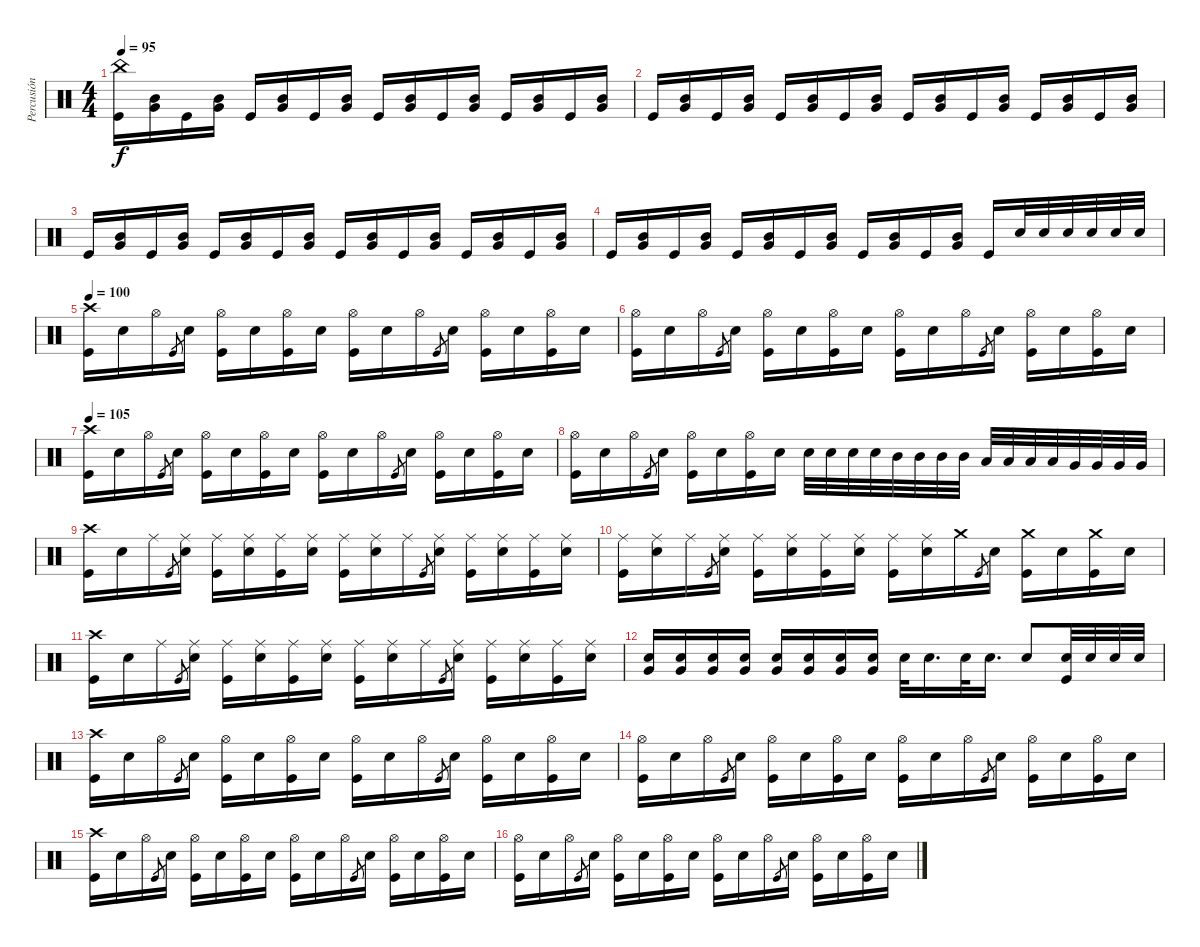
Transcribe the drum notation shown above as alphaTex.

\track ("Percusión" "Percusión") {instrument percussion}
\staff {score}
\articulation defaults
\ts (4 4)
\tempo 95
\clef neutral
\ks c
("Kick (hit)" "China (hit)").16{dy f} ("Mid Tom (hit)" "Very Low Tom (hit)").16 "Kick (hit)".16 ("Mid Tom (hit)" "Very Low Tom (hit)").16 "Kick (hit)".16 ("Mid Tom (hit)" "Very Low Tom (hit)").16 "Kick (hit)".16 ("Mid Tom (hit)" "Very Low Tom (hit)").16 "Kick (hit)".16 ("Mid Tom (hit)" "Very Low Tom (hit)").16 "Kick (hit)".16 ("Mid Tom (hit)" "Very Low Tom (hit)").16 "Kick (hit)".16 ("Mid Tom (hit)" "Very Low Tom (hit)").16 "Kick (hit)".16 ("Mid Tom (hit)" "Very Low Tom (hit)").16 |
"Kick (hit)".16 ("Mid Tom (hit)" "Very Low Tom (hit)").16 "Kick (hit)".16 ("Mid Tom (hit)" "Very Low Tom (hit)").16 "Kick (hit)".16 ("Mid Tom (hit)" "Very Low Tom (hit)").16 "Kick (hit)".16 ("Mid Tom (hit)" "Very Low Tom (hit)").16 "Kick (hit)".16 ("Mid Tom (hit)" "Very Low Tom (hit)").16 "Kick (hit)".16 ("Mid Tom (hit)" "Very Low Tom (hit)").16 "Kick (hit)".16 ("Mid Tom (hit)" "Very Low Tom (hit)").16 "Kick (hit)".16 ("Mid Tom (hit)" "Very Low Tom (hit)").16 |
"Kick (hit)".16 ("Mid Tom (hit)" "Very Low Tom (hit)").16 "Kick (hit)".16 ("Mid Tom (hit)" "Very Low Tom (hit)").16 "Kick (hit)".16 ("Mid Tom (hit)" "Very Low Tom (hit)").16 "Kick (hit)".16 ("Mid Tom (hit)" "Very Low Tom (hit)").16 "Kick (hit)".16 ("Mid Tom (hit)" "Very Low Tom (hit)").16 "Kick (hit)".16 ("Mid Tom (hit)" "Very Low Tom (hit)").16 "Kick (hit)".16 ("Mid Tom (hit)" "Very Low Tom (hit)").16 "Kick (hit)".16 ("Mid Tom (hit)" "Very Low Tom (hit)").16 |
"Kick (hit)".16 ("Mid Tom (hit)" "Very Low Tom (hit)").16 "Kick (hit)".16 ("Mid Tom (hit)" "Very Low Tom (hit)").16 "Kick (hit)".16 ("Mid Tom (hit)" "Very Low Tom (hit)").16 "Kick (hit)".16 ("Mid Tom (hit)" "Very Low Tom (hit)").16 "Kick (hit)".16 ("Mid Tom (hit)" "Very Low Tom (hit)").16 "Kick (hit)".16 ("Mid Tom (hit)" "Very Low Tom (hit)").16 "Kick (hit)".16 "Snare (hit) 2".32 "Snare (hit) 2".32 "Snare (hit) 2".32 "Snare (hit) 2".32 "Snare (hit) 2".32 "Snare (hit) 2".32 |
\tempo 100
("Kick (hit)" "Crash high (hit)").16 "Snare (hit) 2".16 "Hi-Hat (open)".16 "Kick (hit)".8{gr} "Snare (hit) 2".16 ("Kick (hit)" "Hi-Hat (open)").16 "Snare (hit) 2".16 ("Kick (hit)" "Hi-Hat (open)").16 "Snare (hit) 2".16 ("Kick (hit)" "Hi-Hat (open)").16 "Snare (hit) 2".16 "Hi-Hat (open)".16 "Kick (hit)".8{gr} "Snare (hit) 2".16 ("Kick (hit)" "Hi-Hat (open)").16 "Snare (hit) 2".16 ("Kick (hit)" "Hi-Hat (open)").16 "Snare (hit) 2".16 |
("Kick (hit)" "Hi-Hat (open)").16 "Snare (hit) 2".16 "Hi-Hat (open)".16 "Kick (hit)".8{gr} "Snare (hit) 2".16 ("Kick (hit)" "Hi-Hat (open)").16 "Snare (hit) 2".16 ("Kick (hit)" "Hi-Hat (open)").16 "Snare (hit) 2".16 ("Kick (hit)" "Hi-Hat (open)").16 "Snare (hit) 2".16 "Hi-Hat (open)".16 "Kick (hit)".8{gr} "Snare (hit) 2".16 ("Kick (hit)" "Hi-Hat (open)").16 "Snare (hit) 2".16 ("Kick (hit)" "Hi-Hat (open)").16 "Snare (hit) 2".16 |
\tempo 105
("Kick (hit)" "Crash high (hit)").16 "Snare (hit) 2".16 "Hi-Hat (open)".16 "Kick (hit)".8{gr} "Snare (hit) 2".16 ("Kick (hit)" "Hi-Hat (open)").16 "Snare (hit) 2".16 ("Kick (hit)" "Hi-Hat (open)").16 "Snare (hit) 2".16 ("Kick (hit)" "Hi-Hat (open)").16 "Snare (hit) 2".16 "Hi-Hat (open)".16 "Kick (hit)".8{gr} "Snare (hit) 2".16 ("Kick (hit)" "Hi-Hat (open)").16 "Snare (hit) 2".16 ("Kick (hit)" "Hi-Hat (open)").16 "Snare (hit) 2".16 |
("Kick (hit)" "Hi-Hat (open)").16 "Snare (hit) 2".16 "Hi-Hat (open)".16 "Kick (hit)".8{gr} "Snare (hit) 2".16 ("Kick (hit)" "Hi-Hat (open)").16 "Snare (hit) 2".16 ("Kick (hit)" "Hi-Hat (open)").16 "Snare (hit) 2".16 "Snare (hit) 2".32 "Snare (hit) 2".32 "Snare (hit) 2".32 "Snare (hit) 2".32 "Mid Tom (hit)".32 "Mid Tom (hit)".32 "Mid Tom (hit)".32 "Mid Tom (hit)".32 "Low Tom (hit)".32 "Low Tom (hit)".32 "Low Tom (hit)".32 "Low Tom (hit)".32 "Very Low Tom (hit)".32 "Very Low Tom (hit)".32 "Very Low Tom (hit)".32 "Very Low Tom (hit)".32 |
("Kick (hit)" "Crash high (hit)").16 "Snare (hit) 2".16 "Ride (middle)".16 "Kick (hit)".8{gr} ("Snare (hit) 2" "Ride (middle)").16 ("Kick (hit)" "Ride (middle)").16 ("Snare (hit) 2" "Ride (middle)").16 ("Kick (hit)" "Ride (middle)").16 ("Snare (hit) 2" "Ride (middle)").16 ("Kick (hit)" "Ride (middle)").16 ("Snare (hit) 2" "Ride (middle)").16 "Ride (middle)".16 "Kick (hit)".8{gr} ("Snare (hit) 2" "Ride (middle)").16 ("Kick (hit)" "Ride (middle)").16 ("Snare (hit) 2" "Ride (middle)").16 ("Kick (hit)" "Ride (middle)").16 ("Snare (hit) 2" "Ride (middle)").16 |
("Kick (hit)" "Ride (middle)").16 ("Snare (hit) 2" "Ride (middle)").16 "Ride (middle)".16 "Kick (hit)".8{gr} ("Snare (hit) 2" "Ride (middle)").16 ("Kick (hit)" "Ride (middle)").16 ("Snare (hit) 2" "Ride (middle)").16 ("Kick (hit)" "Ride (middle)").16 ("Snare (hit) 2" "Ride (middle)").16 ("Kick (hit)" "Ride (middle)").16 ("Snare (hit) 2" "Ride (middle)").16 "Crash medium (hit)".16 "Kick (hit)".8{gr} "Snare (hit) 2".16 ("Kick (hit)" "Crash medium (hit)").16 "Snare (hit) 2".16 ("Kick (hit)" "Crash medium (hit)").16 "Snare (hit) 2".16 |
("Kick (hit)" "Crash high (hit)").16 "Snare (hit) 2".16 "Ride (middle)".16 "Kick (hit)".8{gr} ("Snare (hit) 2" "Ride (middle)").16 ("Kick (hit)" "Ride (middle)").16 ("Snare (hit) 2" "Ride (middle)").16 ("Kick (hit)" "Ride (middle)").16 ("Snare (hit) 2" "Ride (middle)").16 ("Kick (hit)" "Ride (middle)").16 ("Snare (hit) 2" "Ride (middle)").16 "Ride (middle)".16 "Kick (hit)".8{gr} ("Snare (hit) 2" "Ride (middle)").16 ("Kick (hit)" "Ride (middle)").16 ("Snare (hit) 2" "Ride (middle)").16 ("Kick (hit)" "Ride (middle)").16 ("Snare (hit) 2" "Ride (middle)").16 |
("Snare (hit) 2" "Very Low Tom (hit)").16 ("Snare (hit) 2" "Very Low Tom (hit)").16 ("Snare (hit) 2" "Very Low Tom (hit)").16 ("Snare (hit) 2" "Very Low Tom (hit)").16 ("Snare (hit) 2" "Very Low Tom (hit)").16 ("Snare (hit) 2" "Very Low Tom (hit)").16 ("Snare (hit) 2" "Very Low Tom (hit)").16 ("Snare (hit) 2" "Very Low Tom (hit)").16 "Snare (hit) 2".32 "Snare (hit) 2".16{d} "Snare (hit) 2".32 "Snare (hit) 2".16{d} "Snare (hit) 2".8 ("Snare (hit) 2" "Kick (hit)").32 "Snare (hit) 2".32 "Snare (hit) 2".32 "Snare (hit) 2".32 |
("Kick (hit)" "Crash high (hit)").16 "Snare (hit) 2".16 "Hi-Hat (open)".16 "Kick (hit)".8{gr} "Snare (hit) 2".16 ("Kick (hit)" "Hi-Hat (open)").16 "Snare (hit) 2".16 ("Kick (hit)" "Hi-Hat (open)").16 "Snare (hit) 2".16 ("Kick (hit)" "Hi-Hat (open)").16 "Snare (hit) 2".16 "Hi-Hat (open)".16 "Kick (hit)".8{gr} "Snare (hit) 2".16 ("Kick (hit)" "Hi-Hat (open)").16 "Snare (hit) 2".16 ("Kick (hit)" "Hi-Hat (open)").16 "Snare (hit) 2".16 |
("Kick (hit)" "Hi-Hat (open)").16 "Snare (hit) 2".16 "Hi-Hat (open)".16 "Kick (hit)".8{gr} "Snare (hit) 2".16 ("Kick (hit)" "Hi-Hat (open)").16 "Snare (hit) 2".16 ("Kick (hit)" "Hi-Hat (open)").16 "Snare (hit) 2".16 ("Kick (hit)" "Hi-Hat (open)").16 "Snare (hit) 2".16 "Hi-Hat (open)".16 "Kick (hit)".8{gr} "Snare (hit) 2".16 ("Kick (hit)" "Hi-Hat (open)").16 "Snare (hit) 2".16 ("Kick (hit)" "Hi-Hat (open)").16 "Snare (hit) 2".16 |
("Kick (hit)" "Crash high (hit)").16 "Snare (hit) 2".16 "Hi-Hat (open)".16 "Kick (hit)".8{gr} "Snare (hit) 2".16 ("Kick (hit)" "Hi-Hat (open)").16 "Snare (hit) 2".16 ("Kick (hit)" "Hi-Hat (open)").16 "Snare (hit) 2".16 ("Kick (hit)" "Hi-Hat (open)").16 "Snare (hit) 2".16 "Hi-Hat (open)".16 "Kick (hit)".8{gr} "Snare (hit) 2".16 ("Kick (hit)" "Hi-Hat (open)").16 "Snare (hit) 2".16 ("Kick (hit)" "Hi-Hat (open)").16 "Snare (hit) 2".16 |
("Kick (hit)" "Hi-Hat (open)").16 "Snare (hit) 2".16 "Hi-Hat (open)".16 "Kick (hit)".8{gr} "Snare (hit) 2".16 ("Kick (hit)" "Hi-Hat (open)").16 "Snare (hit) 2".16 ("Kick (hit)" "Hi-Hat (open)").16 "Snare (hit) 2".16 ("Kick (hit)" "Hi-Hat (open)").16 "Snare (hit) 2".16 "Hi-Hat (open)".16 "Kick (hit)".8{gr} "Snare (hit) 2".16 ("Kick (hit)" "Hi-Hat (open)").16 "Snare (hit) 2".16 ("Kick (hit)" "Hi-Hat (open)").16 "Snare (hit) 2".16
